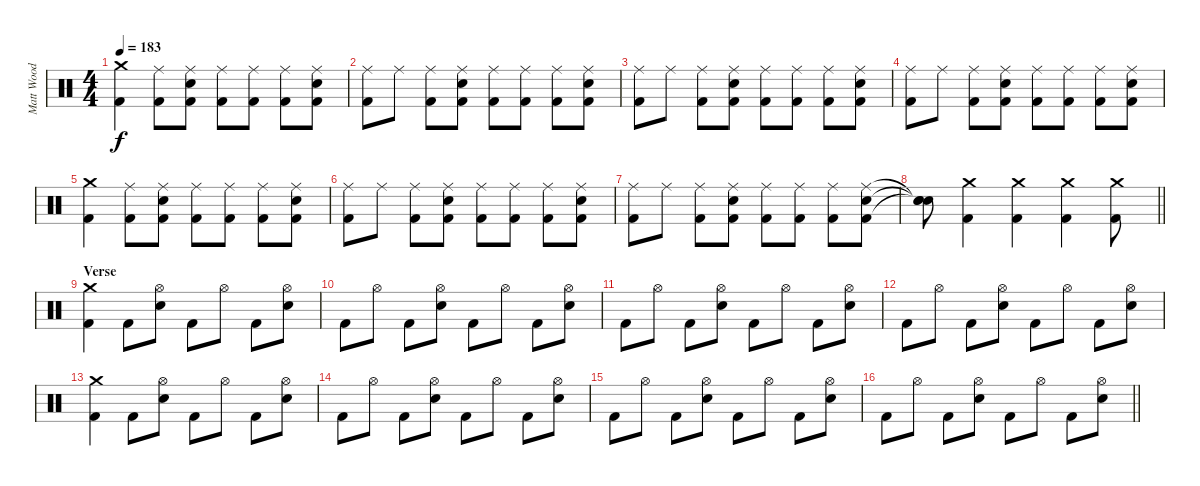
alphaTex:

\track ("Matt Wood" "Matt Wood") {instrument percussion}
\staff {score}
\articulation defaults
\ts (4 4)
\tempo 183
\clef neutral
\ks c
("Crash medium (hit)" "Kick (hit) 2").4{dy f} ("Ride (middle)" "Kick (hit) 2").8 ("Ride (middle)" "Snare (hit) 2" "Kick (hit) 2").8 ("Ride (middle)" "Kick (hit) 2").8 ("Ride (middle)" "Kick (hit) 2").8 ("Ride (middle)" "Kick (hit) 2").8 ("Ride (middle)" "Snare (hit) 2" "Kick (hit) 2").8 |
("Ride (middle)" "Kick (hit) 2").8 "Ride (middle)".8 ("Ride (middle)" "Kick (hit) 2").8 ("Ride (middle)" "Snare (hit) 2" "Kick (hit) 2").8 ("Ride (middle)" "Kick (hit) 2").8 ("Ride (middle)" "Kick (hit) 2").8 ("Ride (middle)" "Kick (hit) 2").8 ("Ride (middle)" "Snare (hit) 2" "Kick (hit) 2").8 |
("Ride (middle)" "Kick (hit) 2").8 "Ride (middle)".8 ("Ride (middle)" "Kick (hit) 2").8 ("Ride (middle)" "Snare (hit) 2" "Kick (hit) 2").8 ("Ride (middle)" "Kick (hit) 2").8 ("Ride (middle)" "Kick (hit) 2").8 ("Ride (middle)" "Kick (hit) 2").8 ("Ride (middle)" "Snare (hit) 2" "Kick (hit) 2").8 |
("Ride (middle)" "Kick (hit) 2").8 "Ride (middle)".8 ("Ride (middle)" "Kick (hit) 2").8 ("Ride (middle)" "Snare (hit) 2" "Kick (hit) 2").8 ("Ride (middle)" "Kick (hit) 2").8 ("Ride (middle)" "Kick (hit) 2").8 ("Ride (middle)" "Kick (hit) 2").8 ("Ride (middle)" "Snare (hit) 2" "Kick (hit) 2").8 |
("Crash medium (hit)" "Kick (hit) 2").4 ("Ride (middle)" "Kick (hit) 2").8 ("Ride (middle)" "Snare (hit) 2" "Kick (hit) 2").8 ("Ride (middle)" "Kick (hit) 2").8 ("Ride (middle)" "Kick (hit) 2").8 ("Ride (middle)" "Kick (hit) 2").8 ("Ride (middle)" "Snare (hit) 2" "Kick (hit) 2").8 |
("Ride (middle)" "Kick (hit) 2").8 "Ride (middle)".8 ("Ride (middle)" "Kick (hit) 2").8 ("Ride (middle)" "Snare (hit) 2" "Kick (hit) 2").8 ("Ride (middle)" "Kick (hit) 2").8 ("Ride (middle)" "Kick (hit) 2").8 ("Ride (middle)" "Kick (hit) 2").8 ("Ride (middle)" "Snare (hit) 2" "Kick (hit) 2").8 |
("Ride (middle)" "Kick (hit) 2").8 "Ride (middle)".8 ("Ride (middle)" "Kick (hit) 2").8 ("Ride (middle)" "Snare (hit) 2" "Kick (hit) 2").8 ("Ride (middle)" "Kick (hit) 2").8 ("Ride (middle)" "Kick (hit) 2").8 ("Ride (middle)" "Kick (hit) 2").8 ("Ride (middle)" "Snare (hit) 2" "Kick (hit) 2").8 |
\barLineRight lightlight
("Snare (hit)"{t} "Snare (hit)"{t} "Snare (hit)"{t}).8 ("Crash medium (hit)" "Kick (hit) 2").4 ("Crash medium (hit)" "Kick (hit) 2").4 ("Crash medium (hit)" "Kick (hit) 2").4 ("Crash medium (hit)" "Kick (hit) 2").8 |
\section ("" "Verse")
("Crash medium (hit)" "Kick (hit) 2").4 "Kick (hit) 2".8 ("Hi-Hat (open)" "Snare (hit) 2").8 "Kick (hit) 2".8 "Hi-Hat (open)".8 "Kick (hit) 2".8 ("Hi-Hat (open)" "Snare (hit) 2").8 |
"Kick (hit) 2".8 "Hi-Hat (open)".8 "Kick (hit) 2".8 ("Hi-Hat (open)" "Snare (hit) 2").8 "Kick (hit) 2".8 "Hi-Hat (open)".8 "Kick (hit) 2".8 ("Hi-Hat (open)" "Snare (hit) 2").8 |
"Kick (hit) 2".8 "Hi-Hat (open)".8 "Kick (hit) 2".8 ("Hi-Hat (open)" "Snare (hit) 2").8 "Kick (hit) 2".8 "Hi-Hat (open)".8 "Kick (hit) 2".8 ("Hi-Hat (open)" "Snare (hit) 2").8 |
"Kick (hit) 2".8 "Hi-Hat (open)".8 "Kick (hit) 2".8 ("Hi-Hat (open)" "Snare (hit) 2").8 "Kick (hit) 2".8 "Hi-Hat (open)".8 "Kick (hit) 2".8 ("Hi-Hat (open)" "Snare (hit) 2").8 |
("Crash medium (hit)" "Kick (hit) 2").4 "Kick (hit) 2".8 ("Hi-Hat (open)" "Snare (hit) 2").8 "Kick (hit) 2".8 "Hi-Hat (open)".8 "Kick (hit) 2".8 ("Hi-Hat (open)" "Snare (hit) 2").8 |
"Kick (hit) 2".8 "Hi-Hat (open)".8 "Kick (hit) 2".8 ("Hi-Hat (open)" "Snare (hit) 2").8 "Kick (hit) 2".8 "Hi-Hat (open)".8 "Kick (hit) 2".8 ("Hi-Hat (open)" "Snare (hit) 2").8 |
"Kick (hit) 2".8 "Hi-Hat (open)".8 "Kick (hit) 2".8 ("Hi-Hat (open)" "Snare (hit) 2").8 "Kick (hit) 2".8 "Hi-Hat (open)".8 "Kick (hit) 2".8 ("Hi-Hat (open)" "Snare (hit) 2").8 |
\barLineRight lightlight "Kick (hit) 2".8 "Hi-Hat (open)".8 "Kick (hit) 2".8
("Hi-Hat (open)" "Snare (hit) 2").8 "Kick (hit) 2".8 "Hi-Hat (open)".8 "Kick (hit) 2".8 ("Hi-Hat (open)" "Snare (hit) 2").8
